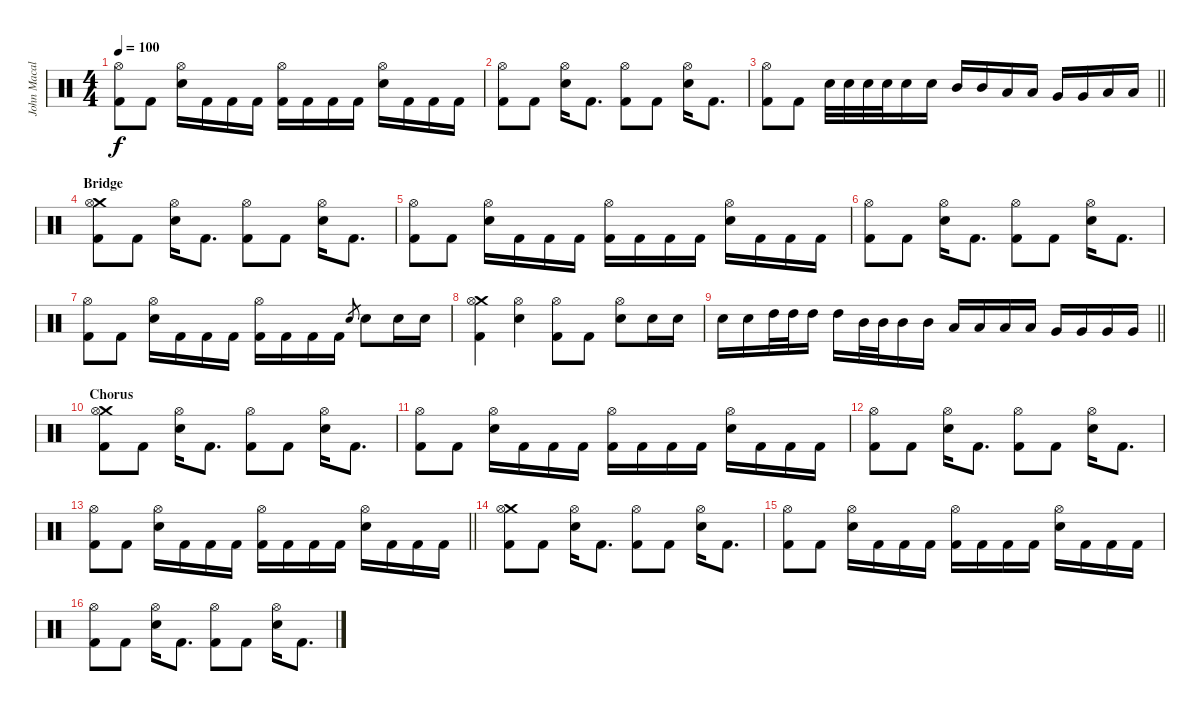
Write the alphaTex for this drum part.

\track ("John Macaluso" "John Macal") {instrument percussion}
\staff {score}
\articulation defaults
\ts (4 4)
\tempo 100
\clef neutral
\ks c
("Hi-Hat (open)" "Kick (hit) 2").8{dy f} "Kick (hit) 2".8 ("Hi-Hat (open)" "Snare (hit) 2").16 "Kick (hit) 2".16 "Kick (hit) 2".16 "Kick (hit) 2".16 ("Hi-Hat (open)" "Kick (hit) 2").16 "Kick (hit) 2".16 "Kick (hit) 2".16 "Kick (hit) 2".16 ("Hi-Hat (open)" "Snare (hit) 2").16 "Kick (hit) 2".16 "Kick (hit) 2".16 "Kick (hit) 2".16 |
("Hi-Hat (open)" "Kick (hit) 2").8 "Kick (hit) 2".8 ("Hi-Hat (open)" "Snare (hit) 2").16 "Kick (hit) 2".8{d} ("Hi-Hat (open)" "Kick (hit) 2").8 "Kick (hit) 2".8 ("Hi-Hat (open)" "Snare (hit) 2").16 "Kick (hit) 2".8{d} |
\barLineRight lightlight
("Hi-Hat (open)" "Kick (hit) 2").8 "Kick (hit) 2".8 "Snare (hit) 2".32 "Snare (hit) 2".32 "Snare (hit) 2".32 "Snare (hit) 2".32 "Snare (hit) 2".16 "Snare (hit) 2".16 "Mid Tom (hit)".16 "Mid Tom (hit)".16 "Low Tom (hit)".16 "Low Tom (hit)".16 "Very Low Tom (hit)".16 "Very Low Tom (hit)".16 "Low Floor Tom (hit)".16 "Low Floor Tom (hit)".16 |
\section ("" "Bridge")
("Crash medium (hit)" "Hi-Hat (open)" "Kick (hit) 2").8 "Kick (hit) 2".8 ("Hi-Hat (open)" "Snare (hit) 2").16 "Kick (hit) 2".8{d} ("Hi-Hat (open)" "Kick (hit) 2").8 "Kick (hit) 2".8 ("Hi-Hat (open)" "Snare (hit) 2").16 "Kick (hit) 2".8{d} |
("Hi-Hat (open)" "Kick (hit) 2").8 "Kick (hit) 2".8 ("Hi-Hat (open)" "Snare (hit) 2").16 "Kick (hit) 2".16 "Kick (hit) 2".16 "Kick (hit) 2".16 ("Hi-Hat (open)" "Kick (hit) 2").16 "Kick (hit) 2".16 "Kick (hit) 2".16 "Kick (hit) 2".16 ("Hi-Hat (open)" "Snare (hit) 2").16 "Kick (hit) 2".16 "Kick (hit) 2".16 "Kick (hit) 2".16 |
("Hi-Hat (open)" "Kick (hit) 2").8 "Kick (hit) 2".8 ("Hi-Hat (open)" "Snare (hit) 2").16 "Kick (hit) 2".8{d} ("Hi-Hat (open)" "Kick (hit) 2").8 "Kick (hit) 2".8 ("Hi-Hat (open)" "Snare (hit) 2").16 "Kick (hit) 2".8{d} |
("Hi-Hat (open)" "Kick (hit) 2").8 "Kick (hit) 2".8 ("Hi-Hat (open)" "Snare (hit) 2").16 "Kick (hit) 2".16 "Kick (hit) 2".16 "Kick (hit) 2".16 ("Hi-Hat (open)" "Kick (hit) 2").16 "Kick (hit) 2".16 "Kick (hit) 2".16 "Kick (hit) 2".16 "Snare (hit) 2".8{gr} "Snare (hit) 2".8 "Snare (hit) 2".16 "Snare (hit) 2".16 |
("Crash medium (hit)" "Hi-Hat (open)" "Kick (hit) 2").4 ("Hi-Hat (open)" "Snare (hit) 2").4 ("Hi-Hat (open)" "Kick (hit) 2").8 "Kick (hit) 2".8 ("Hi-Hat (open)" "Snare (hit) 2").8 "Snare (hit) 2".16 "Snare (hit) 2".16 |
\barLineRight lightlight "Snare (hit) 2".16 "Snare (hit) 2".16 "High Tom (hit)".32 "High Tom (hit)".32 "High Tom (hit)".16 "High Tom (hit)".16 "Mid Tom (hit)".32 "Mid Tom (hit)".32 "Mid Tom (hit)".16 "Mid Tom (hit)".16 "Low Tom (hit)".16 "Low Tom (hit)".16 "Low Tom (hit)".16 "Low Tom (hit)".16 "Very Low Tom (hit)".16 "Very Low Tom (hit)".16 "Very Low Tom (hit)".16 "Very Low Tom (hit)".16
|
\section ("" "Chorus")
("Crash medium (hit)" "Hi-Hat (open)" "Kick (hit) 2").8 "Kick (hit) 2".8 ("Hi-Hat (open)" "Snare (hit) 2").16 "Kick (hit) 2".8{d} ("Hi-Hat (open)" "Kick (hit) 2").8 "Kick (hit) 2".8 ("Hi-Hat (open)" "Snare (hit) 2").16 "Kick (hit) 2".8{d} |
("Hi-Hat (open)" "Kick (hit) 2").8 "Kick (hit) 2".8 ("Hi-Hat (open)" "Snare (hit) 2").16 "Kick (hit) 2".16 "Kick (hit) 2".16 "Kick (hit) 2".16 ("Hi-Hat (open)" "Kick (hit) 2").16 "Kick (hit) 2".16 "Kick (hit) 2".16 "Kick (hit) 2".16 ("Hi-Hat (open)" "Snare (hit) 2").16 "Kick (hit) 2".16 "Kick (hit) 2".16 "Kick (hit) 2".16 |
("Hi-Hat (open)" "Kick (hit) 2").8 "Kick (hit) 2".8 ("Hi-Hat (open)" "Snare (hit) 2").16 "Kick (hit) 2".8{d} ("Hi-Hat (open)" "Kick (hit) 2").8 "Kick (hit) 2".8 ("Hi-Hat (open)" "Snare (hit) 2").16 "Kick (hit) 2".8{d} |
\barLineRight lightlight
("Hi-Hat (open)" "Kick (hit) 2").8 "Kick (hit) 2".8 ("Hi-Hat (open)" "Snare (hit) 2").16 "Kick (hit) 2".16 "Kick (hit) 2".16 "Kick (hit) 2".16 ("Hi-Hat (open)" "Kick (hit) 2").16 "Kick (hit) 2".16 "Kick (hit) 2".16 "Kick (hit) 2".16 ("Hi-Hat (open)" "Snare (hit) 2").16 "Kick (hit) 2".16 "Kick (hit) 2".16 "Kick (hit) 2".16 |
("Crash medium (hit)" "Hi-Hat (open)" "Kick (hit) 2").8 "Kick (hit) 2".8 ("Hi-Hat (open)" "Snare (hit) 2").16 "Kick (hit) 2".8{d} ("Hi-Hat (open)" "Kick (hit) 2").8 "Kick (hit) 2".8 ("Hi-Hat (open)" "Snare (hit) 2").16 "Kick (hit) 2".8{d} |
("Hi-Hat (open)" "Kick (hit) 2").8 "Kick (hit) 2".8 ("Hi-Hat (open)" "Snare (hit) 2").16 "Kick (hit) 2".16 "Kick (hit) 2".16 "Kick (hit) 2".16 ("Hi-Hat (open)" "Kick (hit) 2").16 "Kick (hit) 2".16 "Kick (hit) 2".16 "Kick (hit) 2".16 ("Hi-Hat (open)" "Snare (hit) 2").16 "Kick (hit) 2".16 "Kick (hit) 2".16 "Kick (hit) 2".16 |
("Hi-Hat (open)" "Kick (hit) 2").8 "Kick (hit) 2".8 ("Hi-Hat (open)" "Snare (hit) 2").16 "Kick (hit) 2".8{d} ("Hi-Hat (open)" "Kick (hit) 2").8 "Kick (hit) 2".8 ("Hi-Hat (open)" "Snare (hit) 2").16 "Kick (hit) 2".8{d}
